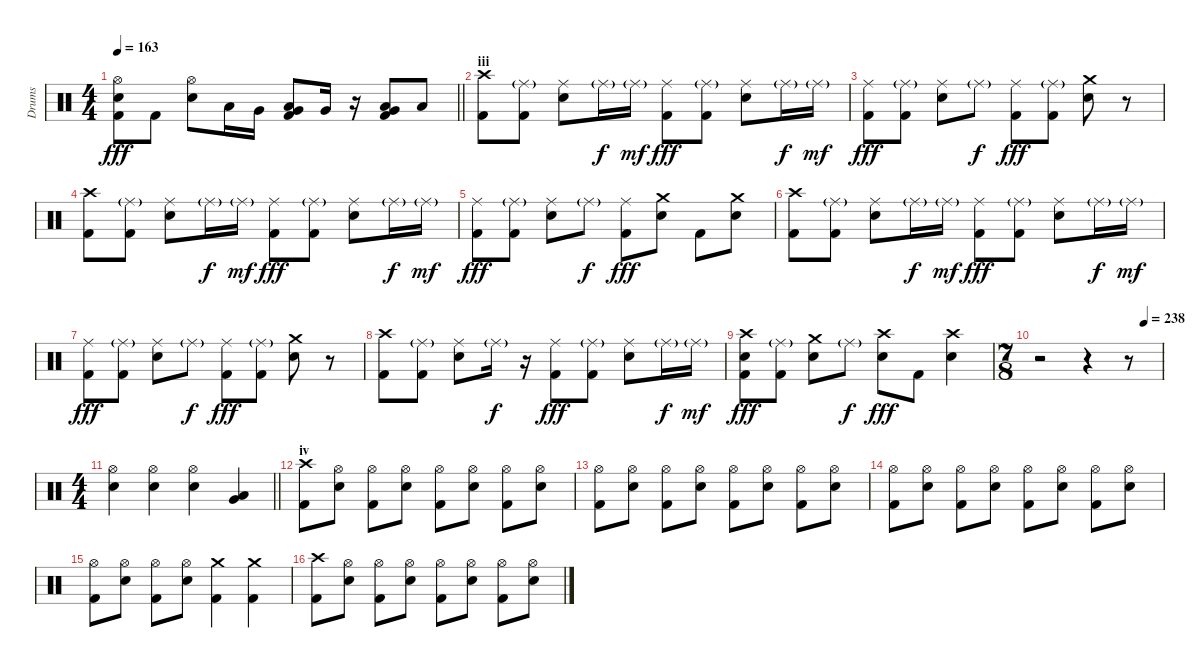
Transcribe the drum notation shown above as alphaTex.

\track ("Drums" "Drums") {instrument percussion}
\staff {score}
\articulation defaults
\ts (4 4)
\tempo 163
\clef neutral
\barLineRight lightlight
\ks c
("Hi-Hat (open)" "Electric Snare (hit)" "Kick (hit) 2").8{dy fff} "Kick (hit) 2".8 ("Hi-Hat (open)" "Electric Snare (hit)").8 "Low Tom (hit)".16 "Very Low Tom (hit)".16 ("Very Low Tom (hit)" "Low Floor Tom (hit)" "Kick (hit) 2").8 "Very Low Tom (hit)".16 r.16 ("Very Low Tom (hit)" "Low Floor Tom (hit)" "Kick (hit) 2").8 "Low Floor Tom (hit)".8 |
\section ("" "iii")
("Crash high (hit)" "Kick (hit) 2").8 ("Ride (middle)"{g} "Kick (hit) 2").8 ("Ride (middle)" "Electric Snare (hit)").8 "Ride (middle)"{g}.16{dy f} "Ride (middle)"{g}.16{dy mf} ("Ride (middle)" "Kick (hit) 2").8{dy fff} ("Ride (middle)"{g} "Kick (hit) 2").8 ("Ride (middle)" "Electric Snare (hit)").8 "Ride (middle)"{g}.16{dy f} "Ride (middle)"{g}.16{dy mf} |
("Ride (middle)" "Kick (hit) 2").8{dy fff} ("Ride (middle)"{g} "Kick (hit) 2").8 ("Ride (middle)" "Electric Snare (hit)").8 "Ride (middle)"{g}.8{dy f} ("Ride (middle)" "Kick (hit) 2").8{dy fff} ("Ride (middle)"{g} "Kick (hit) 2").8 ("Crash medium (hit)" "Electric Snare (hit)").8 r.8 |
("Crash high (hit)" "Kick (hit) 2").8 ("Ride (middle)"{g} "Kick (hit) 2").8 ("Ride (middle)" "Electric Snare (hit)").8 "Ride (middle)"{g}.16{dy f} "Ride (middle)"{g}.16{dy mf} ("Ride (middle)" "Kick (hit) 2").8{dy fff} ("Ride (middle)"{g} "Kick (hit) 2").8 ("Ride (middle)" "Electric Snare (hit)").8 "Ride (middle)"{g}.16{dy f} "Ride (middle)"{g}.16{dy mf} |
("Ride (middle)" "Kick (hit) 2").8{dy fff} ("Ride (middle)"{g} "Kick (hit) 2").8 ("Ride (middle)" "Electric Snare (hit)").8 "Ride (middle)"{g}.8{dy f} ("Ride (middle)" "Kick (hit) 2").8{dy fff} ("Crash medium (hit)" "Electric Snare (hit)").8 "Kick (hit) 2".8 ("Crash medium (hit)" "Electric Snare (hit)").8 |
("Crash high (hit)" "Kick (hit) 2").8 ("Ride (middle)"{g} "Kick (hit) 2").8 ("Ride (middle)" "Electric Snare (hit)").8 "Ride (middle)"{g}.16{dy f} "Ride (middle)"{g}.16{dy mf} ("Ride (middle)" "Kick (hit) 2").8{dy fff} ("Ride (middle)"{g} "Kick (hit) 2").8 ("Ride (middle)" "Electric Snare (hit)").8 "Ride (middle)"{g}.16{dy f} "Ride (middle)"{g}.16{dy mf} |
("Ride (middle)" "Kick (hit) 2").8{dy fff} ("Ride (middle)"{g} "Kick (hit) 2").8 ("Ride (middle)" "Electric Snare (hit)").8 "Ride (middle)"{g}.8{dy f} ("Ride (middle)" "Kick (hit) 2").8{dy fff} ("Ride (middle)"{g} "Kick (hit) 2").8 ("Crash medium (hit)" "Electric Snare (hit)").8 r.8 |
("Crash high (hit)" "Kick (hit) 2").8 ("Ride (middle)"{g} "Kick (hit) 2").8 ("Ride (middle)" "Electric Snare (hit)").8 "Ride (middle)"{g}.16{dy f} r.16 ("Ride (middle)" "Kick (hit) 2").8{dy fff} ("Ride (middle)"{g} "Kick (hit) 2").8 ("Ride (middle)" "Electric Snare (hit)").8 "Ride (middle)"{g}.16{dy f} "Ride (middle)"{g}.16{dy mf} |
("Crash high (hit)" "Electric Snare (hit)" "Kick (hit) 2").8{dy fff} ("Ride (middle)"{g} "Kick (hit) 2").8 ("Crash medium (hit)" "Electric Snare (hit)").8 "Ride (middle)"{g}.8{dy f} ("Crash high (hit)" "Electric Snare (hit)").8{dy fff} "Kick (hit) 2".8 ("Crash high (hit)" "Electric Snare (hit)").4 |
\ts (7 8)
\tempo (238 0.8571428571428571)
r.2 r.4 r.8 |
\ts (4 4)
\barLineRight lightlight
("Hi-Hat (open)" "Electric Snare (hit)").4 ("Hi-Hat (open)" "Electric Snare (hit)").4 ("Hi-Hat (open)" "Electric Snare (hit)").4 ("Low Tom (hit)" "Very Low Tom (hit)").4 |
\section ("" "iv")
("Crash high (hit)" "Kick (hit) 2").8 ("Hi-Hat (open)" "Electric Snare (hit)").8 ("Hi-Hat (open)" "Kick (hit) 2").8 ("Hi-Hat (open)" "Electric Snare (hit)").8 ("Hi-Hat (open)" "Kick (hit) 2").8 ("Hi-Hat (open)" "Electric Snare (hit)").8 ("Hi-Hat (open)" "Kick (hit) 2").8 ("Hi-Hat (open)" "Electric Snare (hit)").8 |
("Hi-Hat (open)" "Kick (hit) 2").8 ("Hi-Hat (open)" "Electric Snare (hit)").8 ("Hi-Hat (open)" "Kick (hit) 2").8 ("Hi-Hat (open)" "Electric Snare (hit)").8 ("Hi-Hat (open)" "Kick (hit) 2").8 ("Hi-Hat (open)" "Electric Snare (hit)").8 ("Hi-Hat (open)" "Kick (hit) 2").8 ("Hi-Hat (open)" "Electric Snare (hit)").8 |
("Hi-Hat (open)" "Kick (hit) 2").8 ("Hi-Hat (open)" "Electric Snare (hit)").8 ("Hi-Hat (open)" "Kick (hit) 2").8 ("Hi-Hat (open)" "Electric Snare (hit)").8 ("Hi-Hat (open)" "Kick (hit) 2").8 ("Hi-Hat (open)" "Electric Snare (hit)").8 ("Hi-Hat (open)" "Kick (hit) 2").8 ("Hi-Hat (open)" "Electric Snare (hit)").8 |
("Hi-Hat (open)" "Kick (hit) 2").8 ("Hi-Hat (open)" "Electric Snare (hit)").8 ("Hi-Hat (open)" "Kick (hit) 2").8 ("Hi-Hat (open)" "Electric Snare (hit)").8 ("Crash medium (hit)" "Kick (hit) 2").4 ("Crash medium (hit)" "Kick (hit) 2").4 |
("Crash high (hit)" "Kick (hit) 2").8 ("Hi-Hat (open)" "Electric Snare (hit)").8 ("Hi-Hat (open)" "Kick (hit) 2").8 ("Hi-Hat (open)" "Electric Snare (hit)").8 ("Hi-Hat (open)" "Kick (hit) 2").8 ("Hi-Hat (open)" "Electric Snare (hit)").8 ("Hi-Hat (open)" "Kick (hit) 2").8 ("Hi-Hat (open)" "Electric Snare (hit)").8
